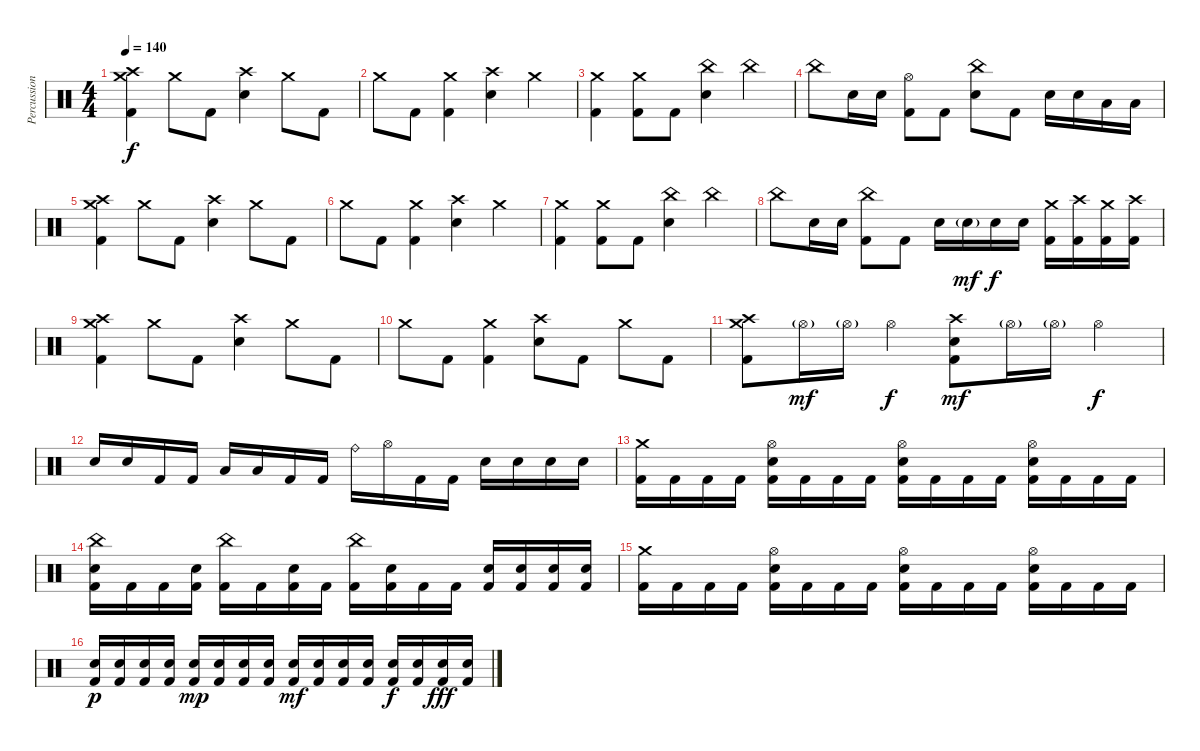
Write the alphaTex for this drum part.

\track ("Percussion" "Percussion") {instrument percussion}
\staff {score}
\articulation defaults
\ts (4 4)
\tempo 140
\clef neutral
\ks c
("Crash medium (hit)" "Crash high (hit)" "Kick (hit) 2").4{dy f} "Crash medium (hit)".8 "Kick (hit) 2".8 ("Crash high (hit)" "Electric Snare (hit)").4 "Crash medium (hit)".8 "Kick (hit) 2".8 |
"Crash medium (hit)".8 "Kick (hit) 2".8 ("Crash medium (hit)" "Kick (hit) 2").4 ("Crash high (hit)" "Electric Snare (hit)").4 "Crash medium (hit)".4 |
("Crash medium (hit)" "Kick (hit) 2").4 ("Crash medium (hit)" "Kick (hit) 2").8 "Kick (hit) 2".8 ("China (hit)" "Electric Snare (hit)").4 "China (hit)".4 |
"China (hit)".8 "Electric Snare (hit)".16 "Electric Snare (hit)".16 ("Hi-Hat (open)" "Kick (hit) 2").8 "Kick (hit) 2".8 ("China (hit)" "Electric Snare (hit)").8 "Kick (hit) 2".8 "Electric Snare (hit)".16 "Electric Snare (hit)".16 "Low Tom (hit)".16 "Low Tom (hit)".16 |
("Crash medium (hit)" "Crash high (hit)" "Kick (hit) 2").4 "Crash medium (hit)".8 "Kick (hit) 2".8 ("Crash high (hit)" "Electric Snare (hit)").4 "Crash medium (hit)".8 "Kick (hit) 2".8 |
"Crash medium (hit)".8 "Kick (hit) 2".8 ("Crash medium (hit)" "Kick (hit) 2").4 ("Crash high (hit)" "Electric Snare (hit)").4 "Crash medium (hit)".4 |
("Crash medium (hit)" "Kick (hit) 2").4 ("Crash medium (hit)" "Kick (hit) 2").8 "Kick (hit) 2".8 ("China (hit)" "Electric Snare (hit)").4 "China (hit)".4 |
"China (hit)".8 "Electric Snare (hit)".16 "Electric Snare (hit)".16 ("China (hit)" "Kick (hit) 2").8 "Kick (hit) 2".8 "Electric Snare (hit)".16 "Electric Snare (hit)"{g}.16{dy mf} "Electric Snare (hit)".16{dy f} "Electric Snare (hit)".16 ("Crash medium (hit)" "Kick (hit) 2").16 ("Crash high (hit)" "Kick (hit) 2").16 ("Crash medium (hit)" "Kick (hit) 2").16 ("Crash high (hit)" "Kick (hit) 2").16 |
("Crash medium (hit)" "Crash high (hit)" "Kick (hit) 2").4 "Crash medium (hit)".8 "Kick (hit) 2".8 ("Crash high (hit)" "Electric Snare (hit)").4 "Crash medium (hit)".8 "Kick (hit) 2".8 |
"Crash medium (hit)".8 "Kick (hit) 2".8 ("Crash medium (hit)" "Kick (hit) 2").4 ("Crash high (hit)" "Electric Snare (hit)").8 "Kick (hit) 2".8 "Crash medium (hit)".8 "Kick (hit) 2".8 |
("Crash high (hit)" "Crash medium (hit)" "Kick (hit) 2").8 "Hi-Hat (open)"{g}.16{dy mf} "Hi-Hat (open)"{g}.16 "Hi-Hat (open)".4{dy f} ("Crash high (hit)" "Electric Snare (hit)" "Kick (hit) 2").8{dy mf} "Hi-Hat (open)"{g}.16 "Hi-Hat (open)"{g}.16 "Hi-Hat (open)".4{dy f} |
"Electric Snare (hit)".16 "Electric Snare (hit)".16 "Kick (hit) 2".16 "Kick (hit) 2".16 "Low Tom (hit)".16 "Low Tom (hit)".16 "Kick (hit) 2".16 "Kick (hit) 2".16 "Ride (bell)".16 "Hi-Hat (open)".16 "Kick (hit) 2".16 "Kick (hit) 2".16 "Electric Snare (hit)".16 "Electric Snare (hit)".16 "Electric Snare (hit)".16 "Electric Snare (hit)".16 |
("Crash medium (hit)" "Kick (hit) 2").16 "Kick (hit) 2".16 "Kick (hit) 2".16 "Kick (hit) 2".16 ("Hi-Hat (open)" "Electric Snare (hit)" "Kick (hit) 2").16 "Kick (hit) 2".16 "Kick (hit) 2".16 "Kick (hit) 2".16 ("Hi-Hat (open)" "Electric Snare (hit)" "Kick (hit) 2").16 "Kick (hit) 2".16 "Kick (hit) 2".16 "Kick (hit) 2".16 ("Hi-Hat (open)" "Electric Snare (hit)" "Kick (hit) 2").16 "Kick (hit) 2".16 "Kick (hit) 2".16 "Kick (hit) 2".16 |
("China (hit)" "Electric Snare (hit)" "Kick (hit) 2").16 "Kick (hit) 2".16 "Kick (hit) 2".16 ("Electric Snare (hit)" "Kick (hit) 2").16 ("China (hit)" "Kick (hit) 2").16 "Kick (hit) 2".16 ("Electric Snare (hit)" "Kick (hit) 2").16 "Kick (hit) 2".16 ("China (hit)" "Kick (hit) 2").16 ("Electric Snare (hit)" "Kick (hit) 2").16 "Kick (hit) 2".16 "Kick (hit) 2".16 ("Electric Snare (hit)" "Kick (hit) 2").16 ("Electric Snare (hit)" "Kick (hit) 2").16 ("Electric Snare (hit)" "Kick (hit) 2").16 ("Electric Snare (hit)" "Kick (hit) 2").16 |
("Crash medium (hit)" "Kick (hit) 2").16 "Kick (hit) 2".16 "Kick (hit) 2".16 "Kick (hit) 2".16 ("Hi-Hat (open)" "Electric Snare (hit)" "Kick (hit) 2").16 "Kick (hit) 2".16 "Kick (hit) 2".16 "Kick (hit) 2".16 ("Hi-Hat (open)" "Electric Snare (hit)" "Kick (hit) 2").16 "Kick (hit) 2".16 "Kick (hit) 2".16 "Kick (hit) 2".16 ("Hi-Hat (open)" "Electric Snare (hit)" "Kick (hit) 2").16 "Kick (hit) 2".16 "Kick (hit) 2".16 "Kick (hit) 2".16 |
("Electric Snare (hit)" "Kick (hit) 2").16{dy p} ("Electric Snare (hit)" "Kick (hit) 2").16 ("Electric Snare (hit)" "Kick (hit) 2").16 ("Electric Snare (hit)" "Kick (hit) 2").16 ("Electric Snare (hit)" "Kick (hit) 2").16{dy mp} ("Electric Snare (hit)" "Kick (hit) 2").16 ("Electric Snare (hit)" "Kick (hit) 2").16 ("Electric Snare (hit)" "Kick (hit) 2").16 ("Electric Snare (hit)" "Kick (hit) 2").16{dy mf} ("Electric Snare (hit)" "Kick (hit) 2").16 ("Electric Snare (hit)" "Kick (hit) 2").16 ("Electric Snare (hit)" "Kick (hit) 2").16 ("Electric Snare (hit)" "Kick (hit) 2").16{dy f} ("Electric Snare (hit)" "Kick (hit) 2").16 ("Electric Snare (hit)" "Kick (hit) 2").16{dy fff} ("Electric Snare (hit)" "Kick (hit) 2").16
